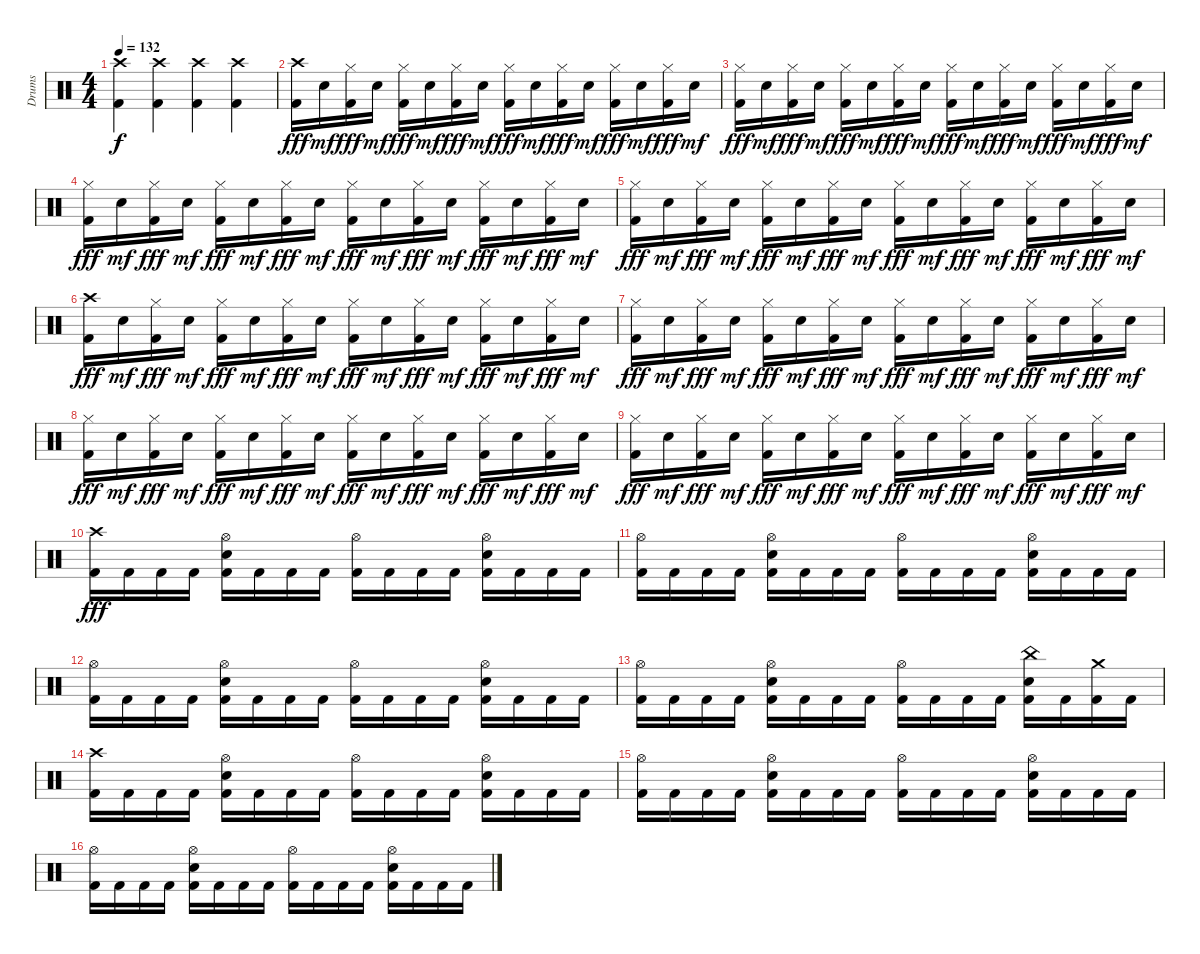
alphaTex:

\track ("Drums" "Drums") {instrument percussion}
\staff {score}
\articulation defaults
\ts (4 4)
\tempo 132
\clef neutral
\ks c
("Crash high (hit)" "Kick (hit) 2").4{dy f} ("Crash high (hit)" "Kick (hit) 2").4 ("Crash high (hit)" "Kick (hit) 2").4 ("Crash high (hit)" "Kick (hit) 2").4 |
("Crash high (hit)" "Kick (hit) 2").16{dy fff} "Snare (hit) 2".16{dy mf} ("Hi-Hat (closed)" "Kick (hit) 2").16{dy fff} "Snare (hit) 2".16{dy mf} ("Hi-Hat (closed)" "Kick (hit) 2").16{dy fff} "Snare (hit) 2".16{dy mf} ("Hi-Hat (closed)" "Kick (hit) 2").16{dy fff} "Snare (hit) 2".16{dy mf} ("Hi-Hat (closed)" "Kick (hit) 2").16{dy fff} "Snare (hit) 2".16{dy mf} ("Hi-Hat (closed)" "Kick (hit) 2").16{dy fff} "Snare (hit) 2".16{dy mf} ("Hi-Hat (closed)" "Kick (hit) 2").16{dy fff} "Snare (hit) 2".16{dy mf} ("Hi-Hat (closed)" "Kick (hit) 2").16{dy fff} "Snare (hit) 2".16{dy mf} |
("Hi-Hat (closed)" "Kick (hit) 2").16{dy fff} "Snare (hit) 2".16{dy mf} ("Hi-Hat (closed)" "Kick (hit) 2").16{dy fff} "Snare (hit) 2".16{dy mf} ("Hi-Hat (closed)" "Kick (hit) 2").16{dy fff} "Snare (hit) 2".16{dy mf} ("Hi-Hat (closed)" "Kick (hit) 2").16{dy fff} "Snare (hit) 2".16{dy mf} ("Hi-Hat (closed)" "Kick (hit) 2").16{dy fff} "Snare (hit) 2".16{dy mf} ("Hi-Hat (closed)" "Kick (hit) 2").16{dy fff} "Snare (hit) 2".16{dy mf} ("Hi-Hat (closed)" "Kick (hit) 2").16{dy fff} "Snare (hit) 2".16{dy mf} ("Hi-Hat (closed)" "Kick (hit) 2").16{dy fff} "Snare (hit) 2".16{dy mf} |
("Hi-Hat (closed)" "Kick (hit) 2").16{dy fff} "Snare (hit) 2".16{dy mf} ("Hi-Hat (closed)" "Kick (hit) 2").16{dy fff} "Snare (hit) 2".16{dy mf} ("Hi-Hat (closed)" "Kick (hit) 2").16{dy fff} "Snare (hit) 2".16{dy mf} ("Hi-Hat (closed)" "Kick (hit) 2").16{dy fff} "Snare (hit) 2".16{dy mf} ("Hi-Hat (closed)" "Kick (hit) 2").16{dy fff} "Snare (hit) 2".16{dy mf} ("Hi-Hat (closed)" "Kick (hit) 2").16{dy fff} "Snare (hit) 2".16{dy mf} ("Hi-Hat (closed)" "Kick (hit) 2").16{dy fff} "Snare (hit) 2".16{dy mf} ("Hi-Hat (closed)" "Kick (hit) 2").16{dy fff} "Snare (hit) 2".16{dy mf} |
("Hi-Hat (closed)" "Kick (hit) 2").16{dy fff} "Snare (hit) 2".16{dy mf} ("Hi-Hat (closed)" "Kick (hit) 2").16{dy fff} "Snare (hit) 2".16{dy mf} ("Hi-Hat (closed)" "Kick (hit) 2").16{dy fff} "Snare (hit) 2".16{dy mf} ("Hi-Hat (closed)" "Kick (hit) 2").16{dy fff} "Snare (hit) 2".16{dy mf} ("Hi-Hat (closed)" "Kick (hit) 2").16{dy fff} "Snare (hit) 2".16{dy mf} ("Hi-Hat (closed)" "Kick (hit) 2").16{dy fff} "Snare (hit) 2".16{dy mf} ("Hi-Hat (closed)" "Kick (hit) 2").16{dy fff} "Snare (hit) 2".16{dy mf} ("Hi-Hat (closed)" "Kick (hit) 2").16{dy fff} "Snare (hit) 2".16{dy mf} |
("Crash high (hit)" "Kick (hit) 2").16{dy fff} "Snare (hit) 2".16{dy mf} ("Hi-Hat (closed)" "Kick (hit) 2").16{dy fff} "Snare (hit) 2".16{dy mf} ("Hi-Hat (closed)" "Kick (hit) 2").16{dy fff} "Snare (hit) 2".16{dy mf} ("Hi-Hat (closed)" "Kick (hit) 2").16{dy fff} "Snare (hit) 2".16{dy mf} ("Hi-Hat (closed)" "Kick (hit) 2").16{dy fff} "Snare (hit) 2".16{dy mf} ("Hi-Hat (closed)" "Kick (hit) 2").16{dy fff} "Snare (hit) 2".16{dy mf} ("Hi-Hat (closed)" "Kick (hit) 2").16{dy fff} "Snare (hit) 2".16{dy mf} ("Hi-Hat (closed)" "Kick (hit) 2").16{dy fff} "Snare (hit) 2".16{dy mf} |
("Hi-Hat (closed)" "Kick (hit) 2").16{dy fff} "Snare (hit) 2".16{dy mf} ("Hi-Hat (closed)" "Kick (hit) 2").16{dy fff} "Snare (hit) 2".16{dy mf} ("Hi-Hat (closed)" "Kick (hit) 2").16{dy fff} "Snare (hit) 2".16{dy mf} ("Hi-Hat (closed)" "Kick (hit) 2").16{dy fff} "Snare (hit) 2".16{dy mf} ("Hi-Hat (closed)" "Kick (hit) 2").16{dy fff} "Snare (hit) 2".16{dy mf} ("Hi-Hat (closed)" "Kick (hit) 2").16{dy fff} "Snare (hit) 2".16{dy mf} ("Hi-Hat (closed)" "Kick (hit) 2").16{dy fff} "Snare (hit) 2".16{dy mf} ("Hi-Hat (closed)" "Kick (hit) 2").16{dy fff} "Snare (hit) 2".16{dy mf} |
("Hi-Hat (closed)" "Kick (hit) 2").16{dy fff} "Snare (hit) 2".16{dy mf} ("Hi-Hat (closed)" "Kick (hit) 2").16{dy fff} "Snare (hit) 2".16{dy mf} ("Hi-Hat (closed)" "Kick (hit) 2").16{dy fff} "Snare (hit) 2".16{dy mf} ("Hi-Hat (closed)" "Kick (hit) 2").16{dy fff} "Snare (hit) 2".16{dy mf} ("Hi-Hat (closed)" "Kick (hit) 2").16{dy fff} "Snare (hit) 2".16{dy mf} ("Hi-Hat (closed)" "Kick (hit) 2").16{dy fff} "Snare (hit) 2".16{dy mf} ("Hi-Hat (closed)" "Kick (hit) 2").16{dy fff} "Snare (hit) 2".16{dy mf} ("Hi-Hat (closed)" "Kick (hit) 2").16{dy fff} "Snare (hit) 2".16{dy mf} |
("Hi-Hat (closed)" "Kick (hit) 2").16{dy fff} "Snare (hit) 2".16{dy mf} ("Hi-Hat (closed)" "Kick (hit) 2").16{dy fff} "Snare (hit) 2".16{dy mf} ("Hi-Hat (closed)" "Kick (hit) 2").16{dy fff} "Snare (hit) 2".16{dy mf} ("Hi-Hat (closed)" "Kick (hit) 2").16{dy fff} "Snare (hit) 2".16{dy mf} ("Hi-Hat (closed)" "Kick (hit) 2").16{dy fff} "Snare (hit) 2".16{dy mf} ("Hi-Hat (closed)" "Kick (hit) 2").16{dy fff} "Snare (hit) 2".16{dy mf} ("Hi-Hat (closed)" "Kick (hit) 2").16{dy fff} "Snare (hit) 2".16{dy mf} ("Hi-Hat (closed)" "Kick (hit) 2").16{dy fff} "Snare (hit) 2".16{dy mf} |
("Crash high (hit)" "Kick (hit) 2").16{dy fff} "Kick (hit) 2".16 "Kick (hit) 2".16 "Kick (hit) 2".16 ("Hi-Hat (open)" "Snare (hit) 2" "Kick (hit) 2").16 "Kick (hit) 2".16 "Kick (hit) 2".16 "Kick (hit) 2".16 ("Hi-Hat (open)" "Kick (hit) 2").16 "Kick (hit) 2".16 "Kick (hit) 2".16 "Kick (hit) 2".16 ("Hi-Hat (open)" "Snare (hit) 2" "Kick (hit) 2").16 "Kick (hit) 2".16 "Kick (hit) 2".16 "Kick (hit) 2".16 |
("Hi-Hat (open)" "Kick (hit) 2").16 "Kick (hit) 2".16 "Kick (hit) 2".16 "Kick (hit) 2".16 ("Hi-Hat (open)" "Snare (hit) 2" "Kick (hit) 2").16 "Kick (hit) 2".16 "Kick (hit) 2".16 "Kick (hit) 2".16 ("Hi-Hat (open)" "Kick (hit) 2").16 "Kick (hit) 2".16 "Kick (hit) 2".16 "Kick (hit) 2".16 ("Hi-Hat (open)" "Snare (hit) 2" "Kick (hit) 2").16 "Kick (hit) 2".16 "Kick (hit) 2".16 "Kick (hit) 2".16 |
("Hi-Hat (open)" "Kick (hit) 2").16 "Kick (hit) 2".16 "Kick (hit) 2".16 "Kick (hit) 2".16 ("Hi-Hat (open)" "Snare (hit) 2" "Kick (hit) 2").16 "Kick (hit) 2".16 "Kick (hit) 2".16 "Kick (hit) 2".16 ("Hi-Hat (open)" "Kick (hit) 2").16 "Kick (hit) 2".16 "Kick (hit) 2".16 "Kick (hit) 2".16 ("Hi-Hat (open)" "Snare (hit) 2" "Kick (hit) 2").16 "Kick (hit) 2".16 "Kick (hit) 2".16 "Kick (hit) 2".16 |
("Hi-Hat (open)" "Kick (hit) 2").16 "Kick (hit) 2".16 "Kick (hit) 2".16 "Kick (hit) 2".16 ("Hi-Hat (open)" "Snare (hit) 2" "Kick (hit) 2").16 "Kick (hit) 2".16 "Kick (hit) 2".16 "Kick (hit) 2".16 ("Hi-Hat (open)" "Kick (hit) 2").16 "Kick (hit) 2".16 "Kick (hit) 2".16 "Kick (hit) 2".16 ("China (hit)" "Snare (hit) 2" "Kick (hit) 2").16 "Kick (hit) 2".16 ("Crash medium (hit)" "Kick (hit) 2").16 "Kick (hit) 2".16 |
("Crash high (hit)" "Kick (hit) 2").16 "Kick (hit) 2".16 "Kick (hit) 2".16 "Kick (hit) 2".16 ("Hi-Hat (open)" "Snare (hit) 2" "Kick (hit) 2").16 "Kick (hit) 2".16 "Kick (hit) 2".16 "Kick (hit) 2".16 ("Hi-Hat (open)" "Kick (hit) 2").16 "Kick (hit) 2".16 "Kick (hit) 2".16 "Kick (hit) 2".16 ("Hi-Hat (open)" "Snare (hit) 2" "Kick (hit) 2").16 "Kick (hit) 2".16 "Kick (hit) 2".16 "Kick (hit) 2".16 |
("Hi-Hat (open)" "Kick (hit) 2").16 "Kick (hit) 2".16 "Kick (hit) 2".16 "Kick (hit) 2".16 ("Hi-Hat (open)" "Snare (hit) 2" "Kick (hit) 2").16 "Kick (hit) 2".16 "Kick (hit) 2".16 "Kick (hit) 2".16 ("Hi-Hat (open)" "Kick (hit) 2").16 "Kick (hit) 2".16 "Kick (hit) 2".16 "Kick (hit) 2".16 ("Hi-Hat (open)" "Snare (hit) 2" "Kick (hit) 2").16 "Kick (hit) 2".16 "Kick (hit) 2".16 "Kick (hit) 2".16 |
("Hi-Hat (open)" "Kick (hit) 2").16 "Kick (hit) 2".16 "Kick (hit) 2".16 "Kick (hit) 2".16 ("Hi-Hat (open)" "Snare (hit) 2" "Kick (hit) 2").16 "Kick (hit) 2".16 "Kick (hit) 2".16 "Kick (hit) 2".16 ("Hi-Hat (open)" "Kick (hit) 2").16 "Kick (hit) 2".16 "Kick (hit) 2".16 "Kick (hit) 2".16 ("Hi-Hat (open)" "Snare (hit) 2" "Kick (hit) 2").16 "Kick (hit) 2".16 "Kick (hit) 2".16 "Kick (hit) 2".16
